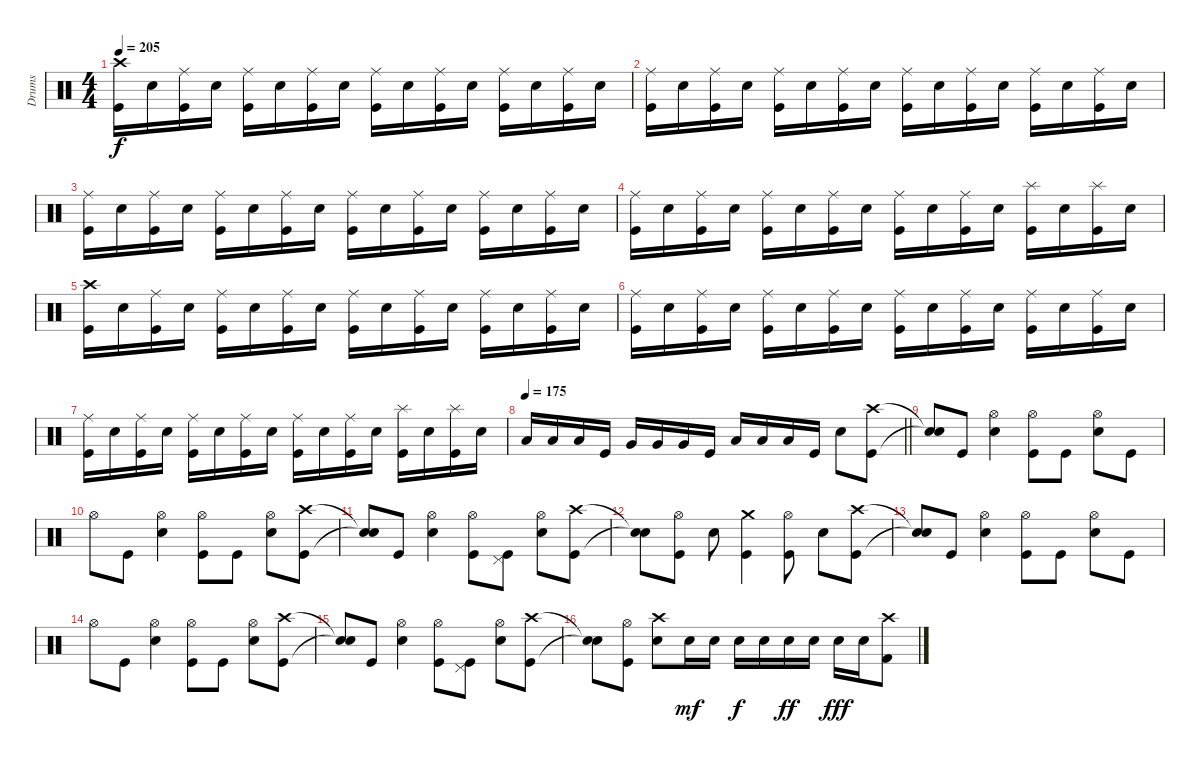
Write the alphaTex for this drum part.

\track ("Drums" "Drums") {instrument percussion}
\staff {score}
\articulation defaults
\ts (4 4)
\tempo 205
\clef neutral
\ks c
("Crash high (hit)" "Kick (hit)").16{dy f} "Electric Snare (hit)".16 ("Ride (middle)" "Kick (hit)").16 "Electric Snare (hit)".16 ("Ride (middle)" "Kick (hit)").16 "Electric Snare (hit)".16 ("Ride (middle)" "Kick (hit)").16 "Electric Snare (hit)".16 ("Ride (middle)" "Kick (hit)").16 "Electric Snare (hit)".16 ("Ride (middle)" "Kick (hit)").16 "Electric Snare (hit)".16 ("Ride (middle)" "Kick (hit)").16 "Electric Snare (hit)".16 ("Ride (middle)" "Kick (hit)").16 "Electric Snare (hit)".16 |
("Ride (middle)" "Kick (hit)").16 "Electric Snare (hit)".16 ("Ride (middle)" "Kick (hit)").16 "Electric Snare (hit)".16 ("Ride (middle)" "Kick (hit)").16 "Electric Snare (hit)".16 ("Ride (middle)" "Kick (hit)").16 "Electric Snare (hit)".16 ("Ride (middle)" "Kick (hit)").16 "Electric Snare (hit)".16 ("Ride (middle)" "Kick (hit)").16 "Electric Snare (hit)".16 ("Ride (middle)" "Kick (hit)").16 "Electric Snare (hit)".16 ("Ride (middle)" "Kick (hit)").16 "Electric Snare (hit)".16 |
("Ride (middle)" "Kick (hit)").16 "Electric Snare (hit)".16 ("Ride (middle)" "Kick (hit)").16 "Electric Snare (hit)".16 ("Ride (middle)" "Kick (hit)").16 "Electric Snare (hit)".16 ("Ride (middle)" "Kick (hit)").16 "Electric Snare (hit)".16 ("Ride (middle)" "Kick (hit)").16 "Electric Snare (hit)".16 ("Ride (middle)" "Kick (hit)").16 "Electric Snare (hit)".16 ("Ride (middle)" "Kick (hit)").16 "Electric Snare (hit)".16 ("Ride (middle)" "Kick (hit)").16 "Electric Snare (hit)".16 |
("Ride (middle)" "Kick (hit)").16 "Electric Snare (hit)".16 ("Ride (middle)" "Kick (hit)").16 "Electric Snare (hit)".16 ("Ride (middle)" "Kick (hit)").16 "Electric Snare (hit)".16 ("Ride (middle)" "Kick (hit)").16 "Electric Snare (hit)".16 ("Ride (middle)" "Kick (hit)").16 "Electric Snare (hit)".16 ("Ride (middle)" "Kick (hit)").16 "Electric Snare (hit)".16 ("Splash (hit)" "Kick (hit)").16 "Electric Snare (hit)".16 ("Splash (hit)" "Kick (hit)").16 "Electric Snare (hit)".16 |
("Crash high (hit)" "Kick (hit)").16 "Electric Snare (hit)".16 ("Ride (middle)" "Kick (hit)").16 "Electric Snare (hit)".16 ("Ride (middle)" "Kick (hit)").16 "Electric Snare (hit)".16 ("Ride (middle)" "Kick (hit)").16 "Electric Snare (hit)".16 ("Ride (middle)" "Kick (hit)").16 "Electric Snare (hit)".16 ("Ride (middle)" "Kick (hit)").16 "Electric Snare (hit)".16 ("Ride (middle)" "Kick (hit)").16 "Electric Snare (hit)".16 ("Ride (middle)" "Kick (hit)").16 "Electric Snare (hit)".16 |
("Ride (middle)" "Kick (hit)").16 "Electric Snare (hit)".16 ("Ride (middle)" "Kick (hit)").16 "Electric Snare (hit)".16 ("Ride (middle)" "Kick (hit)").16 "Electric Snare (hit)".16 ("Ride (middle)" "Kick (hit)").16 "Electric Snare (hit)".16 ("Ride (middle)" "Kick (hit)").16 "Electric Snare (hit)".16 ("Ride (middle)" "Kick (hit)").16 "Electric Snare (hit)".16 ("Ride (middle)" "Kick (hit)").16 "Electric Snare (hit)".16 ("Ride (middle)" "Kick (hit)").16 "Electric Snare (hit)".16 |
("Ride (middle)" "Kick (hit)").16 "Electric Snare (hit)".16 ("Ride (middle)" "Kick (hit)").16 "Electric Snare (hit)".16 ("Ride (middle)" "Kick (hit)").16 "Electric Snare (hit)".16 ("Ride (middle)" "Kick (hit)").16 "Electric Snare (hit)".16 ("Ride (middle)" "Kick (hit)").16 "Electric Snare (hit)".16 ("Ride (middle)" "Kick (hit)").16 "Electric Snare (hit)".16 ("Splash (hit)" "Kick (hit)").16 "Electric Snare (hit)".16 ("Splash (hit)" "Kick (hit)").16 "Electric Snare (hit)".16 |
\tempo 175
\barLineRight lightlight "Low Tom (hit)".16 "Low Tom (hit)".16 "Low Tom (hit)".16 "Kick (hit)".16 "Very Low Tom (hit)".16 "Very Low Tom (hit)".16 "Very Low Tom (hit)".16 "Kick (hit)".16 "Low Floor Tom (hit)".16 "Low Floor Tom (hit)".16 "Low Floor Tom (hit)".16 "Kick (hit)".16 "Electric Snare (hit)".8
("Crash high (hit)" "Kick (hit)").8 |
("Snare (hit)"{t} "Snare (hit)"{t}).8 "Kick (hit)".8 ("Hi-Hat (open)" "Electric Snare (hit)").4 ("Hi-Hat (open)" "Kick (hit)").8 "Kick (hit)".8 ("Hi-Hat (open)" "Electric Snare (hit)").8 "Kick (hit)".8 |
"Hi-Hat (open)".8 "Kick (hit)".8 ("Hi-Hat (open)" "Electric Snare (hit)").4 ("Hi-Hat (open)" "Kick (hit)").8 "Kick (hit)".8 ("Hi-Hat (open)" "Electric Snare (hit)").8 ("Crash high (hit)" "Kick (hit)").8 |
("Snare (hit)"{t} "Snare (hit)"{t}).8 "Kick (hit)".8 ("Hi-Hat (open)" "Electric Snare (hit)").4 ("Hi-Hat (open)" "Kick (hit)").8 ("Pedal Hi-Hat (hit)" "Kick (hit)").8 ("Hi-Hat (open)" "Electric Snare (hit)").8 ("Crash high (hit)" "Kick (hit)").8 |
("Snare (hit)"{t} "Snare (hit)"{t}).8 ("Hi-Hat (open)" "Kick (hit)").8 "Electric Snare (hit)".8 ("Crash medium (hit)" "Kick (hit)").4 ("Hi-Hat (open)" "Kick (hit)").8 "Electric Snare (hit)".8 ("Crash high (hit)" "Kick (hit)").8 |
("Snare (hit)"{t} "Snare (hit)"{t}).8 "Kick (hit)".8 ("Hi-Hat (open)" "Electric Snare (hit)").4 ("Hi-Hat (open)" "Kick (hit)").8 "Kick (hit)".8 ("Hi-Hat (open)" "Electric Snare (hit)").8 "Kick (hit)".8 |
"Hi-Hat (open)".8 "Kick (hit)".8 ("Hi-Hat (open)" "Electric Snare (hit)").4 ("Hi-Hat (open)" "Kick (hit)").8 "Kick (hit)".8 ("Hi-Hat (open)" "Electric Snare (hit)").8 ("Crash high (hit)" "Kick (hit)").8 |
("Snare (hit)"{t} "Snare (hit)"{t}).8 "Kick (hit)".8 ("Hi-Hat (open)" "Electric Snare (hit)").4 ("Hi-Hat (open)" "Kick (hit)").8 ("Pedal Hi-Hat (hit)" "Kick (hit)").8 ("Hi-Hat (open)" "Electric Snare (hit)").8 ("Crash high (hit)" "Kick (hit)").8 |
("Snare (hit)"{t} "Snare (hit)"{t}).8 ("Hi-Hat (open)" "Kick (hit)").8 ("Crash high (hit)" "Electric Snare (hit)").8 "Electric Snare (hit)".16{dy mf} "Electric Snare (hit)".16 "Electric Snare (hit)".16{dy f} "Electric Snare (hit)".16 "Electric Snare (hit)".16{dy ff} "Electric Snare (hit)".16 "Electric Snare (hit)".16{dy fff} "Electric Snare (hit)".16 ("Crash high (hit)" "Kick (hit) 2").8
